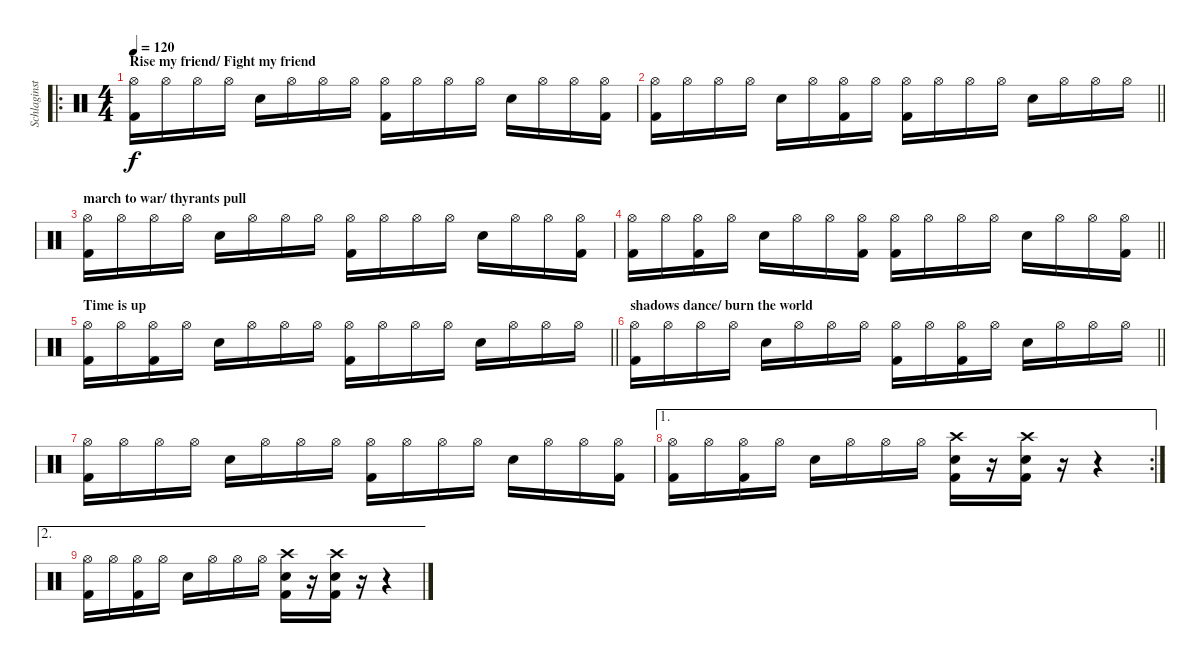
\track ("Schlaginstrumente - Auswahl" "Schlaginst") {instrument percussion}
\staff {score}
\articulation defaults
\ro
\ts (4 4)
\section ("" "Rise my friend/ Fight my friend")
\tempo 120
\clef neutral
\ks c
("Hi-Hat (open)" "Kick (hit) 2").16{dy f} "Hi-Hat (open)".16 "Hi-Hat (open)".16 "Hi-Hat (open)".16 "Electric Snare (hit)".16 "Hi-Hat (open)".16 "Hi-Hat (open)".16 "Hi-Hat (open)".16 ("Hi-Hat (open)" "Kick (hit) 2").16 "Hi-Hat (open)".16 "Hi-Hat (open)".16 "Hi-Hat (open)".16 "Electric Snare (hit)".16 "Hi-Hat (open)".16 "Hi-Hat (open)".16 ("Hi-Hat (open)" "Kick (hit) 2").16 |
\barLineRight lightlight
("Hi-Hat (open)" "Kick (hit) 2").16 "Hi-Hat (open)".16 "Hi-Hat (open)".16 "Hi-Hat (open)".16 "Electric Snare (hit)".16 "Hi-Hat (open)".16 ("Hi-Hat (open)" "Kick (hit) 2").16 "Hi-Hat (open)".16 ("Hi-Hat (open)" "Kick (hit) 2").16 "Hi-Hat (open)".16 "Hi-Hat (open)".16 "Hi-Hat (open)".16 "Electric Snare (hit)".16 "Hi-Hat (open)".16 "Hi-Hat (open)".16 "Hi-Hat (open)".16 |
\section ("" "march to war/ thyrants pull")
("Hi-Hat (open)" "Kick (hit) 2").16 "Hi-Hat (open)".16 "Hi-Hat (open)".16 "Hi-Hat (open)".16 "Electric Snare (hit)".16 "Hi-Hat (open)".16 "Hi-Hat (open)".16 "Hi-Hat (open)".16 ("Hi-Hat (open)" "Kick (hit) 2").16 "Hi-Hat (open)".16 "Hi-Hat (open)".16 "Hi-Hat (open)".16 "Electric Snare (hit)".16 "Hi-Hat (open)".16 "Hi-Hat (open)".16 ("Hi-Hat (open)" "Kick (hit) 2").16 |
\barLineRight lightlight
("Hi-Hat (open)" "Kick (hit) 2").16 "Hi-Hat (open)".16 ("Hi-Hat (open)" "Kick (hit) 2").16 "Hi-Hat (open)".16 "Electric Snare (hit)".16 "Hi-Hat (open)".16 "Hi-Hat (open)".16 ("Hi-Hat (open)" "Kick (hit) 2").16 ("Hi-Hat (open)" "Kick (hit) 2").16 "Hi-Hat (open)".16 "Hi-Hat (open)".16 "Hi-Hat (open)".16 "Electric Snare (hit)".16 "Hi-Hat (open)".16 "Hi-Hat (open)".16 ("Hi-Hat (open)" "Kick (hit) 2").16 |
\section ("" "Time is up")
\barLineRight lightlight
("Hi-Hat (open)" "Kick (hit) 2").16 "Hi-Hat (open)".16 ("Hi-Hat (open)" "Kick (hit) 2").16 "Hi-Hat (open)".16 "Electric Snare (hit)".16 "Hi-Hat (open)".16 "Hi-Hat (open)".16 "Hi-Hat (open)".16 ("Hi-Hat (open)" "Kick (hit) 2").16 "Hi-Hat (open)".16 "Hi-Hat (open)".16 "Hi-Hat (open)".16 "Electric Snare (hit)".16 "Hi-Hat (open)".16 "Hi-Hat (open)".16 "Hi-Hat (open)".16 |
\section ("" "shadows dance/ burn the world")
\barLineRight lightlight
("Hi-Hat (open)" "Kick (hit) 2").16 "Hi-Hat (open)".16 "Hi-Hat (open)".16 "Hi-Hat (open)".16 "Electric Snare (hit)".16 "Hi-Hat (open)".16 "Hi-Hat (open)".16 "Hi-Hat (open)".16 ("Hi-Hat (open)" "Kick (hit) 2").16 "Hi-Hat (open)".16 ("Hi-Hat (open)" "Kick (hit) 2").16 "Hi-Hat (open)".16 "Electric Snare (hit)".16 "Hi-Hat (open)".16 "Hi-Hat (open)".16 "Hi-Hat (open)".16 |
("Hi-Hat (open)" "Kick (hit) 2").16 "Hi-Hat (open)".16 "Hi-Hat (open)".16 "Hi-Hat (open)".16 "Electric Snare (hit)".16 "Hi-Hat (open)".16 "Hi-Hat (open)".16 "Hi-Hat (open)".16 ("Hi-Hat (open)" "Kick (hit) 2").16 "Hi-Hat (open)".16 "Hi-Hat (open)".16 "Hi-Hat (open)".16 "Electric Snare (hit)".16 "Hi-Hat (open)".16 "Hi-Hat (open)".16 ("Hi-Hat (open)" "Kick (hit) 2").16 |
\ae 1
\rc 2
("Hi-Hat (open)" "Kick (hit) 2").16 "Hi-Hat (open)".16 ("Hi-Hat (open)" "Kick (hit) 2").16 "Hi-Hat (open)".16 "Electric Snare (hit)".16 "Hi-Hat (open)".16 "Hi-Hat (open)".16 "Hi-Hat (open)".16 ("Crash high (hit)" "Electric Snare (hit)" "Kick (hit) 2").16 r.16 ("Crash high (hit)" "Electric Snare (hit)" "Kick (hit) 2").16 r.16 r.4 |
\ae 2
("Hi-Hat (open)" "Kick (hit) 2").16 "Hi-Hat (open)".16 ("Hi-Hat (open)" "Kick (hit) 2").16 "Hi-Hat (open)".16 "Electric Snare (hit)".16 "Hi-Hat (open)".16 "Hi-Hat (open)".16 "Hi-Hat (open)".16 ("Crash high (hit)" "Electric Snare (hit)" "Kick (hit) 2").16 r.16 ("Crash high (hit)" "Electric Snare (hit)" "Kick (hit) 2").16 r.16 r.4
